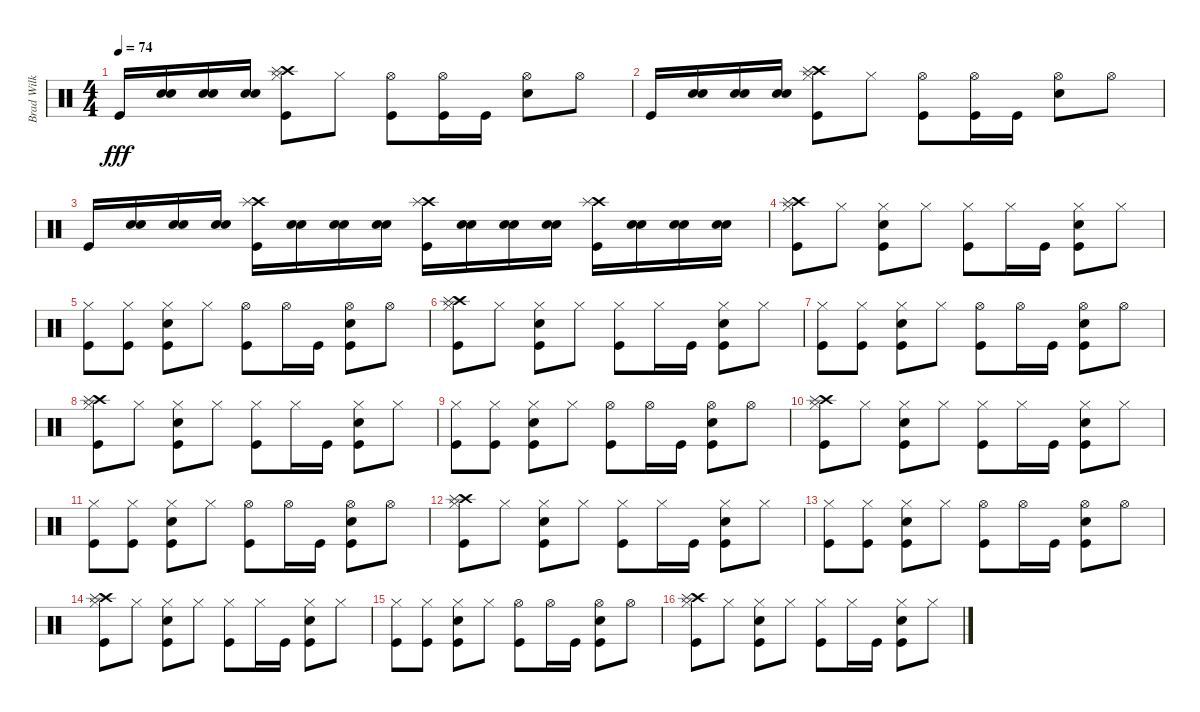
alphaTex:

\track ("Brad Wilk" "Brad Wilk") {instrument percussion}
\staff {score}
\articulation defaults
\ts (4 4)
\tempo 74
\clef neutral
\ks c "Kick (hit)".16{dy fff}
("Electric Snare (hit)" "Electric Snare (hit)").16 ("Electric Snare (hit)" "Electric Snare (hit)").16 ("Electric Snare (hit)" "Electric Snare (hit)").16 ("Crash high (hit)" "Splash (hit)" "Kick (hit)" "Hi-Hat (closed)").8 "Hi-Hat (closed)".8 ("Kick (hit)" "Hi-Hat (open)").8 ("Kick (hit)" "Hi-Hat (open)").16 "Kick (hit)".16 ("Electric Snare (hit)" "Hi-Hat (open)").8 "Hi-Hat (open)".8 |
"Kick (hit)".16 ("Electric Snare (hit)" "Electric Snare (hit)").16 ("Electric Snare (hit)" "Electric Snare (hit)").16 ("Electric Snare (hit)" "Electric Snare (hit)").16 ("Crash high (hit)" "Splash (hit)" "Kick (hit)" "Hi-Hat (closed)").8 "Hi-Hat (closed)".8 ("Kick (hit)" "Hi-Hat (open)").8 ("Kick (hit)" "Hi-Hat (open)").16 "Kick (hit)".16 ("Electric Snare (hit)" "Hi-Hat (open)").8 "Hi-Hat (open)".8 |
"Kick (hit)".16 ("Electric Snare (hit)" "Electric Snare (hit)").16 ("Electric Snare (hit)" "Electric Snare (hit)").16 ("Electric Snare (hit)" "Electric Snare (hit)").16 ("Crash high (hit)" "Splash (hit)" "Kick (hit)").16 ("Electric Snare (hit)" "Electric Snare (hit)").16 ("Electric Snare (hit)" "Electric Snare (hit)").16 ("Electric Snare (hit)" "Electric Snare (hit)").16 ("Crash high (hit)" "Splash (hit)" "Kick (hit)").16 ("Electric Snare (hit)" "Electric Snare (hit)").16 ("Electric Snare (hit)" "Electric Snare (hit)").16 ("Electric Snare (hit)" "Electric Snare (hit)").16 ("Crash high (hit)" "Splash (hit)" "Kick (hit)").16 ("Electric Snare (hit)" "Electric Snare (hit)").16 ("Electric Snare (hit)" "Electric Snare (hit)").16 ("Electric Snare (hit)" "Electric Snare (hit)").16 |
("Crash high (hit)" "Splash (hit)" "Kick (hit)" "Hi-Hat (closed)").8 "Hi-Hat (closed)".8 ("Kick (hit)" "Electric Snare (hit)" "Hi-Hat (closed)").8 "Hi-Hat (closed)".8 ("Kick (hit)" "Hi-Hat (closed)").8 "Hi-Hat (closed)".16 "Kick (hit)".16 ("Kick (hit)" "Electric Snare (hit)" "Hi-Hat (closed)").8 "Hi-Hat (closed)".8 |
("Kick (hit)" "Hi-Hat (closed)").8 ("Kick (hit)" "Hi-Hat (closed)").8 ("Kick (hit)" "Electric Snare (hit)" "Hi-Hat (closed)").8 "Hi-Hat (closed)".8 ("Kick (hit)" "Hi-Hat (open)").8 "Hi-Hat (open)".16 "Kick (hit)".16 ("Kick (hit)" "Electric Snare (hit)" "Hi-Hat (open)").8 "Hi-Hat (open)".8 |
("Crash high (hit)" "Splash (hit)" "Kick (hit)" "Hi-Hat (closed)").8 "Hi-Hat (closed)".8 ("Kick (hit)" "Electric Snare (hit)" "Hi-Hat (closed)").8 "Hi-Hat (closed)".8 ("Kick (hit)" "Hi-Hat (closed)").8 "Hi-Hat (closed)".16 "Kick (hit)".16 ("Kick (hit)" "Electric Snare (hit)" "Hi-Hat (closed)").8 "Hi-Hat (closed)".8 |
("Kick (hit)" "Hi-Hat (closed)").8 ("Kick (hit)" "Hi-Hat (closed)").8 ("Kick (hit)" "Electric Snare (hit)" "Hi-Hat (closed)").8 "Hi-Hat (closed)".8 ("Kick (hit)" "Hi-Hat (open)").8 "Hi-Hat (open)".16 "Kick (hit)".16 ("Kick (hit)" "Electric Snare (hit)" "Hi-Hat (open)").8 "Hi-Hat (open)".8 |
("Crash high (hit)" "Splash (hit)" "Kick (hit)" "Hi-Hat (closed)").8 "Hi-Hat (closed)".8 ("Kick (hit)" "Electric Snare (hit)" "Hi-Hat (closed)").8 "Hi-Hat (closed)".8 ("Kick (hit)" "Hi-Hat (closed)").8 "Hi-Hat (closed)".16 "Kick (hit)".16 ("Kick (hit)" "Electric Snare (hit)" "Hi-Hat (closed)").8 "Hi-Hat (closed)".8 |
("Kick (hit)" "Hi-Hat (closed)").8 ("Kick (hit)" "Hi-Hat (closed)").8 ("Kick (hit)" "Electric Snare (hit)" "Hi-Hat (closed)").8 "Hi-Hat (closed)".8 ("Kick (hit)" "Hi-Hat (open)").8 "Hi-Hat (open)".16 "Kick (hit)".16 ("Kick (hit)" "Electric Snare (hit)" "Hi-Hat (open)").8 "Hi-Hat (open)".8 |
("Crash high (hit)" "Splash (hit)" "Kick (hit)" "Hi-Hat (closed)").8 "Hi-Hat (closed)".8 ("Kick (hit)" "Electric Snare (hit)" "Hi-Hat (closed)").8 "Hi-Hat (closed)".8 ("Kick (hit)" "Hi-Hat (closed)").8 "Hi-Hat (closed)".16 "Kick (hit)".16 ("Kick (hit)" "Electric Snare (hit)" "Hi-Hat (closed)").8 "Hi-Hat (closed)".8 |
("Kick (hit)" "Hi-Hat (closed)").8 ("Kick (hit)" "Hi-Hat (closed)").8 ("Kick (hit)" "Electric Snare (hit)" "Hi-Hat (closed)").8 "Hi-Hat (closed)".8 ("Kick (hit)" "Hi-Hat (open)").8 "Hi-Hat (open)".16 "Kick (hit)".16 ("Kick (hit)" "Electric Snare (hit)" "Hi-Hat (open)").8 "Hi-Hat (open)".8 |
("Crash high (hit)" "Splash (hit)" "Kick (hit)" "Hi-Hat (closed)").8 "Hi-Hat (closed)".8 ("Kick (hit)" "Electric Snare (hit)" "Hi-Hat (closed)").8 "Hi-Hat (closed)".8 ("Kick (hit)" "Hi-Hat (closed)").8 "Hi-Hat (closed)".16 "Kick (hit)".16 ("Kick (hit)" "Electric Snare (hit)" "Hi-Hat (closed)").8 "Hi-Hat (closed)".8 |
("Kick (hit)" "Hi-Hat (closed)").8 ("Kick (hit)" "Hi-Hat (closed)").8 ("Kick (hit)" "Electric Snare (hit)" "Hi-Hat (closed)").8 "Hi-Hat (closed)".8 ("Kick (hit)" "Hi-Hat (open)").8 "Hi-Hat (open)".16 "Kick (hit)".16 ("Kick (hit)" "Electric Snare (hit)" "Hi-Hat (open)").8 "Hi-Hat (open)".8 |
("Crash high (hit)" "Splash (hit)" "Kick (hit)" "Hi-Hat (closed)").8 "Hi-Hat (closed)".8 ("Kick (hit)" "Electric Snare (hit)" "Hi-Hat (closed)").8 "Hi-Hat (closed)".8 ("Kick (hit)" "Hi-Hat (closed)").8 "Hi-Hat (closed)".16 "Kick (hit)".16 ("Kick (hit)" "Electric Snare (hit)" "Hi-Hat (closed)").8 "Hi-Hat (closed)".8 |
("Kick (hit)" "Hi-Hat (closed)").8 ("Kick (hit)" "Hi-Hat (closed)").8 ("Kick (hit)" "Electric Snare (hit)" "Hi-Hat (closed)").8 "Hi-Hat (closed)".8 ("Kick (hit)" "Hi-Hat (open)").8 "Hi-Hat (open)".16 "Kick (hit)".16 ("Kick (hit)" "Electric Snare (hit)" "Hi-Hat (open)").8 "Hi-Hat (open)".8 |
("Crash high (hit)" "Splash (hit)" "Kick (hit)" "Hi-Hat (closed)").8 "Hi-Hat (closed)".8 ("Kick (hit)" "Electric Snare (hit)" "Hi-Hat (closed)").8 "Hi-Hat (closed)".8 ("Kick (hit)" "Hi-Hat (closed)").8 "Hi-Hat (closed)".16 "Kick (hit)".16 ("Kick (hit)" "Electric Snare (hit)" "Hi-Hat (closed)").8 "Hi-Hat (closed)".8
